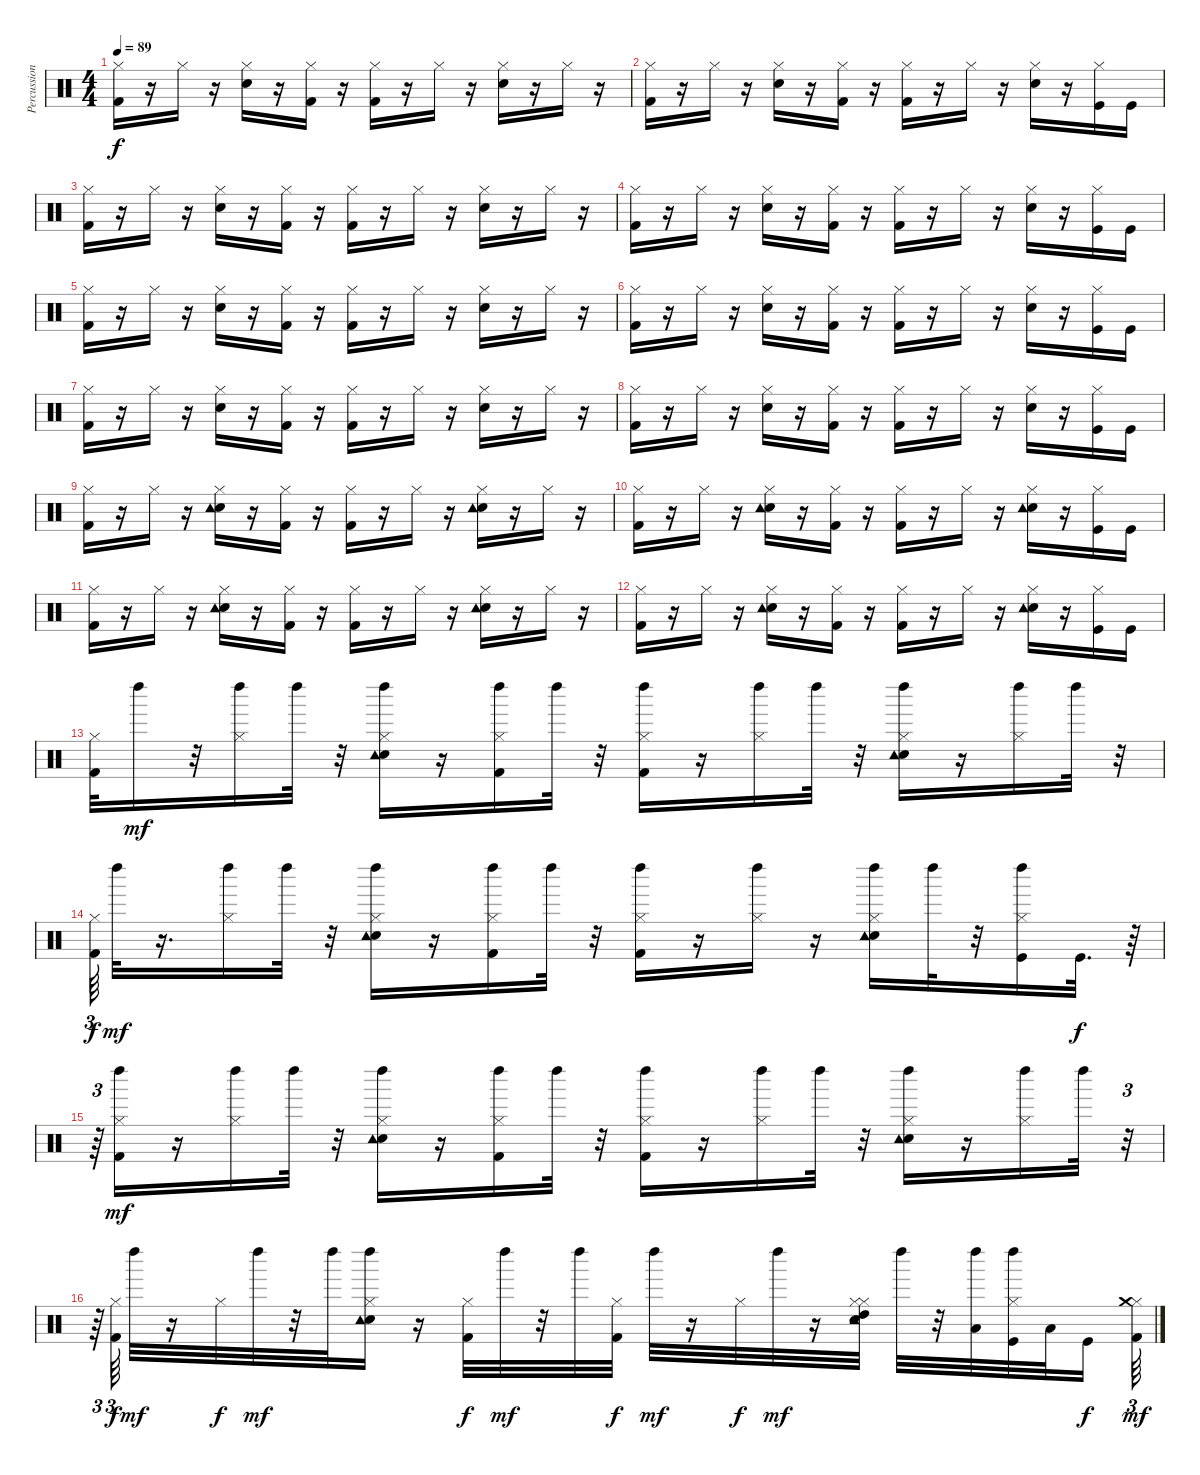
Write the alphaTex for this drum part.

\track ("Percussion" "Percussion") {instrument percussion}
\staff {score}
\articulation defaults
\ts (4 4)
\tempo 89
\clef neutral
\ks c
("Kick (hit) 2" "Hi-Hat (closed)").16{dy f} r.16 "Hi-Hat (closed)".16 r.16 ("Snare (hit) 2" "Hi-Hat (closed)").16 r.16 ("Kick (hit) 2" "Hi-Hat (closed)").16 r.16 ("Kick (hit) 2" "Hi-Hat (closed)").16 r.16 "Hi-Hat (closed)".16 r.16 ("Snare (hit) 2" "Hi-Hat (closed)").16 r.16 "Hi-Hat (closed)".16 r.16 |
("Kick (hit) 2" "Hi-Hat (closed)").16 r.16 "Hi-Hat (closed)".16 r.16 ("Snare (hit) 2" "Hi-Hat (closed)").16 r.16 ("Kick (hit) 2" "Hi-Hat (closed)").16 r.16 ("Kick (hit) 2" "Hi-Hat (closed)").16 r.16 "Hi-Hat (closed)".16 r.16 ("Snare (hit) 2" "Hi-Hat (closed)").16 r.16 ("Hi-Hat (closed)" "Kick (hit)").16 "Kick (hit)".16 |
("Kick (hit) 2" "Hi-Hat (closed)").16 r.16 "Hi-Hat (closed)".16 r.16 ("Snare (hit) 2" "Hi-Hat (closed)").16 r.16 ("Kick (hit) 2" "Hi-Hat (closed)").16 r.16 ("Kick (hit) 2" "Hi-Hat (closed)").16 r.16 "Hi-Hat (closed)".16 r.16 ("Snare (hit) 2" "Hi-Hat (closed)").16 r.16 "Hi-Hat (closed)".16 r.16 |
("Kick (hit) 2" "Hi-Hat (closed)").16 r.16 "Hi-Hat (closed)".16 r.16 ("Snare (hit) 2" "Hi-Hat (closed)").16 r.16 ("Kick (hit) 2" "Hi-Hat (closed)").16 r.16 ("Kick (hit) 2" "Hi-Hat (closed)").16 r.16 "Hi-Hat (closed)".16 r.16 ("Snare (hit) 2" "Hi-Hat (closed)").16 r.16 ("Hi-Hat (closed)" "Kick (hit)").16 "Kick (hit)".16 |
("Kick (hit) 2" "Hi-Hat (closed)").16 r.16 "Hi-Hat (closed)".16 r.16 ("Snare (hit) 2" "Hi-Hat (closed)").16 r.16 ("Kick (hit) 2" "Hi-Hat (closed)").16 r.16 ("Kick (hit) 2" "Hi-Hat (closed)").16 r.16 "Hi-Hat (closed)".16 r.16 ("Snare (hit) 2" "Hi-Hat (closed)").16 r.16 "Hi-Hat (closed)".16 r.16 |
("Kick (hit) 2" "Hi-Hat (closed)").16 r.16 "Hi-Hat (closed)".16 r.16 ("Snare (hit) 2" "Hi-Hat (closed)").16 r.16 ("Kick (hit) 2" "Hi-Hat (closed)").16 r.16 ("Kick (hit) 2" "Hi-Hat (closed)").16 r.16 "Hi-Hat (closed)".16 r.16 ("Snare (hit) 2" "Hi-Hat (closed)").16 r.16 ("Hi-Hat (closed)" "Kick (hit)").16 "Kick (hit)".16 |
("Kick (hit) 2" "Hi-Hat (closed)").16 r.16 "Hi-Hat (closed)".16 r.16 ("Snare (hit) 2" "Hi-Hat (closed)").16 r.16 ("Kick (hit) 2" "Hi-Hat (closed)").16 r.16 ("Kick (hit) 2" "Hi-Hat (closed)").16 r.16 "Hi-Hat (closed)".16 r.16 ("Snare (hit) 2" "Hi-Hat (closed)").16 r.16 "Hi-Hat (closed)".16 r.16 |
("Kick (hit) 2" "Hi-Hat (closed)").16 r.16 "Hi-Hat (closed)".16 r.16 ("Snare (hit) 2" "Hi-Hat (closed)").16 r.16 ("Kick (hit) 2" "Hi-Hat (closed)").16 r.16 ("Kick (hit) 2" "Hi-Hat (closed)").16 r.16 "Hi-Hat (closed)".16 r.16 ("Snare (hit) 2" "Hi-Hat (closed)").16 r.16 ("Hi-Hat (closed)" "Kick (hit)").16 "Kick (hit)".16 |
("Kick (hit) 2" "Hi-Hat (closed)").16 r.16 "Hi-Hat (closed)".16 r.16 ("Snare (hit) 2" "Hi-Hat (closed)" "Tambourine (hit)").16 r.16 ("Kick (hit) 2" "Hi-Hat (closed)").16 r.16 ("Kick (hit) 2" "Hi-Hat (closed)").16 r.16 "Hi-Hat (closed)".16 r.16 ("Snare (hit) 2" "Hi-Hat (closed)" "Tambourine (hit)").16 r.16 "Hi-Hat (closed)".16 r.16 |
("Kick (hit) 2" "Hi-Hat (closed)").16 r.16 "Hi-Hat (closed)".16 r.16 ("Snare (hit) 2" "Hi-Hat (closed)" "Tambourine (hit)").16 r.16 ("Kick (hit) 2" "Hi-Hat (closed)").16 r.16 ("Kick (hit) 2" "Hi-Hat (closed)").16 r.16 "Hi-Hat (closed)".16 r.16 ("Snare (hit) 2" "Hi-Hat (closed)" "Tambourine (hit)").16 r.16 ("Hi-Hat (closed)" "Kick (hit)").16 "Kick (hit)".16 |
("Kick (hit) 2" "Hi-Hat (closed)").16 r.16 "Hi-Hat (closed)".16 r.16 ("Snare (hit) 2" "Hi-Hat (closed)" "Tambourine (hit)").16 r.16 ("Kick (hit) 2" "Hi-Hat (closed)").16 r.16 ("Kick (hit) 2" "Hi-Hat (closed)").16 r.16 "Hi-Hat (closed)".16 r.16 ("Snare (hit) 2" "Hi-Hat (closed)" "Tambourine (hit)").16 r.16 "Hi-Hat (closed)".16 r.16 |
("Kick (hit) 2" "Hi-Hat (closed)").16 r.16 "Hi-Hat (closed)".16 r.16 ("Snare (hit) 2" "Hi-Hat (closed)" "Tambourine (hit)").16 r.16 ("Kick (hit) 2" "Hi-Hat (closed)").16 r.16 ("Kick (hit) 2" "Hi-Hat (closed)").16 r.16 "Hi-Hat (closed)".16 r.16 ("Snare (hit) 2" "Hi-Hat (closed)" "Tambourine (hit)").16 r.16 ("Hi-Hat (closed)" "Kick (hit)").16 "Kick (hit)".16 |
("Kick (hit) 2" "Hi-Hat (closed)").32 "Left Maraca (hit)".16{dy mf} r.32 ("Hi-Hat (closed)" "Left Maraca (hit)").16 "Left Maraca (hit)".32 r.32 ("Snare (hit) 2" "Hi-Hat (closed)" "Left Maraca (hit)" "Tambourine (hit)").16 r.16 ("Kick (hit) 2" "Hi-Hat (closed)" "Left Maraca (hit)").16 "Left Maraca (hit)".32 r.32 ("Kick (hit) 2" "Hi-Hat (closed)" "Left Maraca (hit)").16 r.16 ("Hi-Hat (closed)" "Left Maraca (hit)").16 "Left Maraca (hit)".32 r.32 ("Snare (hit) 2" "Hi-Hat (closed)" "Tambourine (hit)" "Left Maraca (hit)").16 r.16 ("Hi-Hat (closed)" "Left Maraca (hit)").16 "Left Maraca (hit)".32 r.32 |
("Kick (hit) 2" "Hi-Hat (closed)").64{tu (3 2) dy f} "Left Maraca (hit)".32{dy mf} r.16{d} ("Hi-Hat (closed)" "Left Maraca (hit)").16 "Left Maraca (hit)".32 r.32 ("Snare (hit) 2" "Hi-Hat (closed)" "Tambourine (hit)" "Left Maraca (hit)").16 r.16 ("Kick (hit) 2" "Hi-Hat (closed)" "Left Maraca (hit)").16 "Left Maraca (hit)".32 r.32 ("Kick (hit) 2" "Hi-Hat (closed)" "Left Maraca (hit)").16 r.16 ("Hi-Hat (closed)" "Left Maraca (hit)").16 r.16 ("Snare (hit) 2" "Hi-Hat (closed)" "Tambourine (hit)" "Left Maraca (hit)").16 "Left Maraca (hit)".32 r.32 ("Hi-Hat (closed)" "Kick (hit)" "Left Maraca (hit)").16 "Kick (hit)".32{d dy f} r.64 |
r.64{tu (3 2)} ("Kick (hit) 2" "Hi-Hat (closed)" "Left Maraca (hit)").16{dy mf} r.16 ("Hi-Hat (closed)" "Left Maraca (hit)").16 "Left Maraca (hit)".32 r.32 ("Snare (hit) 2" "Hi-Hat (closed)" "Left Maraca (hit)" "Tambourine (hit)").16 r.16 ("Kick (hit) 2" "Hi-Hat (closed)" "Left Maraca (hit)").16 "Left Maraca (hit)".32 r.32 ("Kick (hit) 2" "Hi-Hat (closed)" "Left Maraca (hit)").16 r.16 ("Hi-Hat (closed)" "Left Maraca (hit)").16 "Left Maraca (hit)".32 r.32 ("Snare (hit) 2" "Hi-Hat (closed)" "Tambourine (hit)" "Left Maraca (hit)").16 r.16 ("Hi-Hat (closed)" "Left Maraca (hit)").16 "Left Maraca (hit)".32 r.32{tu (3 2)} |
r.64{tu (3 2)} ("Kick (hit) 2" "Hi-Hat (closed)").64{tu (3 2) dy f} "Left Maraca (hit)".32{dy mf} r.16 "Hi-Hat (closed)".32{dy f} "Left Maraca (hit)".32{dy mf} r.32 "Left Maraca (hit)".32 ("Snare (hit) 2" "Hi-Hat (closed)" "Tambourine (hit)" "Left Maraca (hit)").16 r.16 ("Kick (hit) 2" "Hi-Hat (closed)").32{dy f} "Left Maraca (hit)".32{dy mf} r.32 "Left Maraca (hit)".32 ("Kick (hit) 2" "Hi-Hat (closed)").32{dy f} "Left Maraca (hit)".32{dy mf} r.16 "Hi-Hat (closed)".32{dy f} "Left Maraca (hit)".32{dy mf} r.16 ("Snare (hit) 2" "Hi-Hat (closed)" "Hi-Hat (closed)" "Tambourine (hit)" "High Tom (hit)").32 "Left Maraca (hit)".32 r.32 ("Low Tom (hit)" "Left Maraca (hit)").32 ("Hi-Hat (closed)" "Kick (hit)" "Left Maraca (hit)").32 "Low Floor Tom (hit)".32 "Kick (hit)".16{dy f} ("Hi-Hat (closed)" "Crash medium (hit)" "Kick (hit) 2").64{tu (3 2) dy mf}
